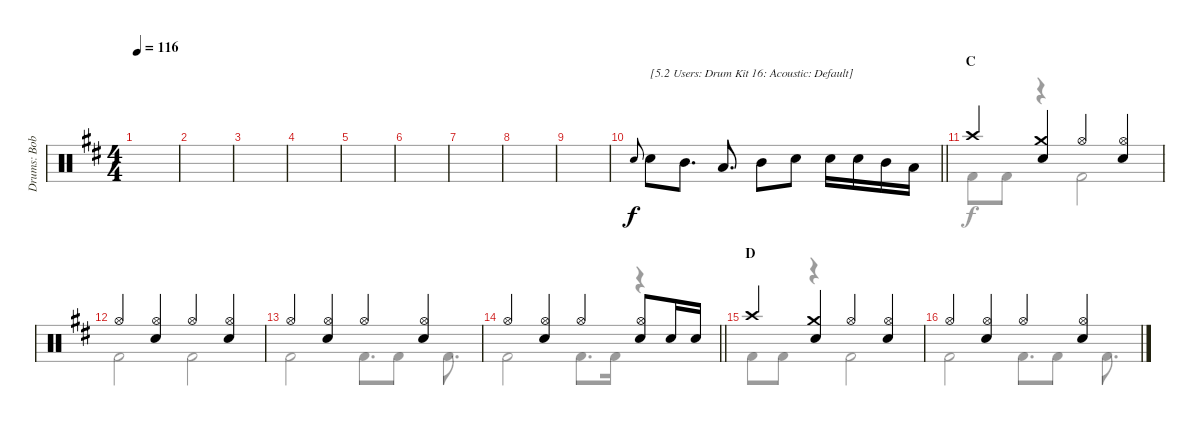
\track ("Drums: Bobby" "Drums: Bob") {instrument percussion}
\staff {score}
\articulation defaults
\voice
\ts (4 4)
\tempo 116
\clef neutral
\ks d
|
|
|
|
|
|
|
|
|
\barLineRight lightlight "Electric Snare (hit)".8{gr onbeat} "Snare (hit) 2".8{txt "[5.2 Users: Drum Kit 16: Acoustic: Default]"} "Mid Tom (hit)".8{d} "Low Tom (hit)".8{d} "Mid Tom (hit)".8 "Snare (hit) 2".8 "Snare (hit) 2".16 "Snare (hit) 2".16 "Mid Tom (hit)".16 "Low Tom (hit)".16
|
\section ("" "C")
"Crash high (hit)".4 ("Crash medium (hit)" "Snare (hit) 2").4 "Hi-Hat (open)".4 ("Hi-Hat (open)" "Snare (hit) 2").4 |
"Hi-Hat (open)".4 ("Hi-Hat (open)" "Snare (hit) 2").4 "Hi-Hat (open)".4 ("Hi-Hat (open)" "Snare (hit) 2").4 |
"Hi-Hat (open)".4 ("Hi-Hat (open)" "Snare (hit) 2").4 "Hi-Hat (open)".4 ("Hi-Hat (open)" "Snare (hit) 2").4 |
\barLineRight lightlight "Hi-Hat (open)".4
("Hi-Hat (open)" "Snare (hit) 2").4 "Hi-Hat (open)".4 ("Hi-Hat (open)" "Snare (hit) 2").8 "Snare (hit) 2".16 "Snare (hit) 2".16 |
\section ("" "D")
"Crash high (hit)".4 ("Crash medium (hit)" "Snare (hit) 2").4 "Hi-Hat (open)".4 ("Hi-Hat (open)" "Snare (hit) 2").4 |
"Hi-Hat (open)".4 ("Hi-Hat (open)" "Snare (hit) 2").4 "Hi-Hat (open)".4 ("Hi-Hat (open)" "Snare (hit) 2").4
\voice
\clef neutral
\ottava regular
\simile none
\ks d
|
|
|
|
|
|
|
|
|
\barLineRight lightlight
|
"Kick (hit) 2".8 "Kick (hit) 2".8 r.4 "Kick (hit) 2".2 |
"Kick (hit) 2".2 "Kick (hit) 2".2 |
"Kick (hit) 2".2 "Kick (hit) 2".8{d} "Kick (hit) 2".8 "Kick (hit) 2".8{d} |
\barLineRight lightlight "Kick (hit) 2".2 "Kick (hit) 2".8{d} "Kick (hit) 2".16
r.4 |
"Kick (hit) 2".8 "Kick (hit) 2".8 r.4 "Kick (hit) 2".2 |
"Kick (hit) 2".2 "Kick (hit) 2".8{d} "Kick (hit) 2".8 "Kick (hit) 2".8{d}
